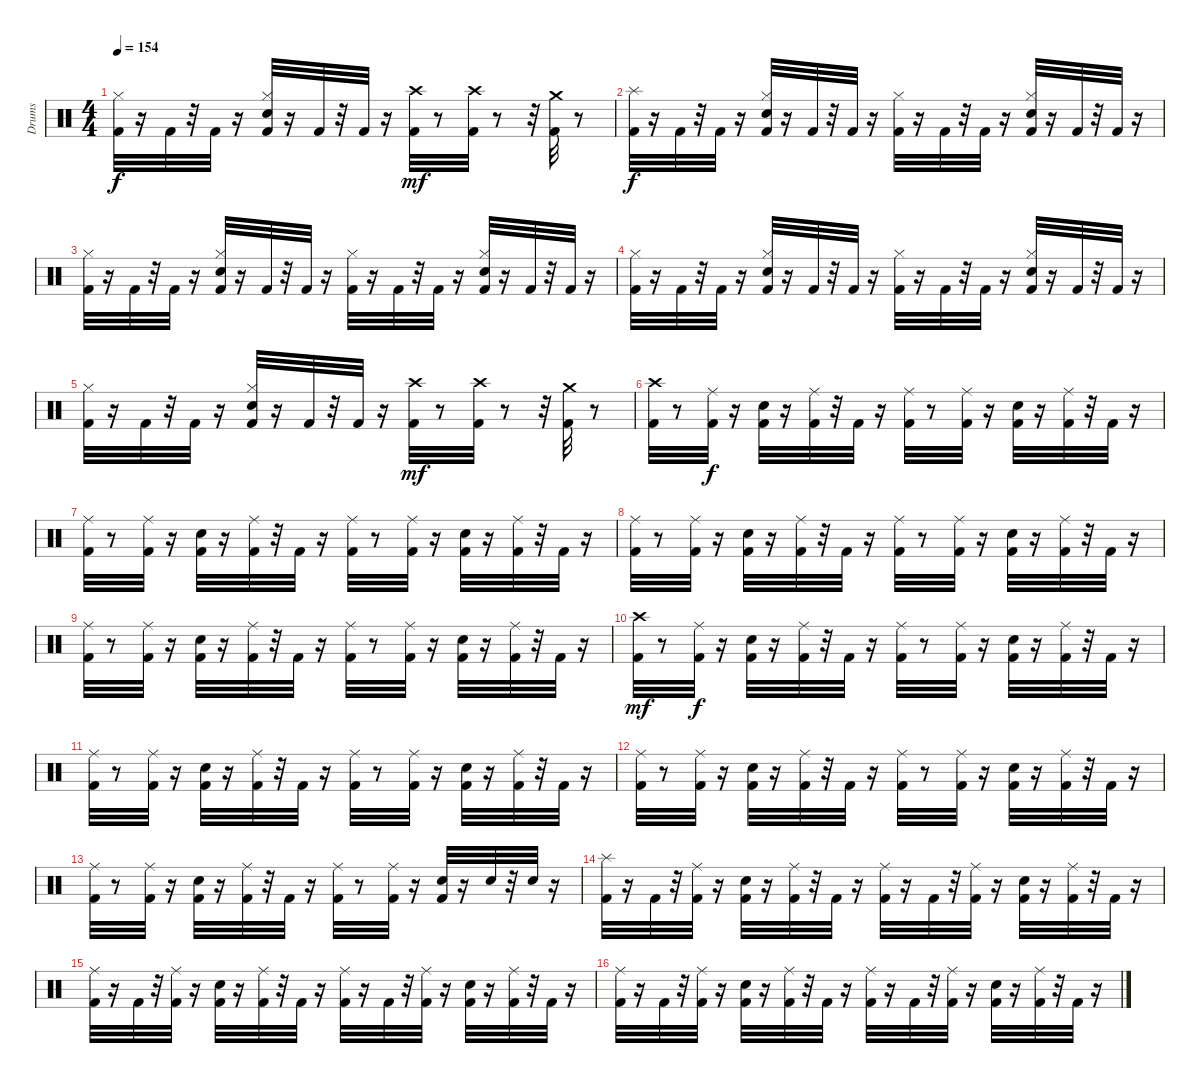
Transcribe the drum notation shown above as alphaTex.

\track ("Drums" "Drums") {instrument percussion}
\staff {score}
\articulation defaults
\ts (4 4)
\tempo 154
\clef neutral
\ks c
("Kick (hit) 2" "Hi-Hat (closed)").32{dy f} r.16 "Kick (hit) 2".32 r.32 "Kick (hit) 2".32 r.16 ("Kick (hit) 2" "Snare (hit) 2" "Hi-Hat (closed)").32 r.16 "Kick (hit) 2".32 r.32 "Kick (hit) 2".32 r.16 ("Kick (hit) 2" "Crash high (hit)").32{dy mf} r.8 ("Kick (hit) 2" "Crash high (hit)").32 r.8 r.32 ("Kick (hit) 2" "Crash medium (hit)").32 r.8 |
("Kick (hit) 2" "Splash (hit)").32{dy f} r.16 "Kick (hit) 2".32 r.32 "Kick (hit) 2".32 r.16 ("Kick (hit) 2" "Snare (hit) 2" "Hi-Hat (closed)").32 r.16 "Kick (hit) 2".32 r.32 "Kick (hit) 2".32 r.16 ("Kick (hit) 2" "Hi-Hat (closed)").32 r.16 "Kick (hit) 2".32 r.32 "Kick (hit) 2".32 r.16 ("Kick (hit) 2" "Snare (hit) 2" "Hi-Hat (closed)").32 r.16 "Kick (hit) 2".32 r.32 "Kick (hit) 2".32 r.16 |
("Kick (hit) 2" "Hi-Hat (closed)").32 r.16 "Kick (hit) 2".32 r.32 "Kick (hit) 2".32 r.16 ("Kick (hit) 2" "Snare (hit) 2" "Hi-Hat (closed)").32 r.16 "Kick (hit) 2".32 r.32 "Kick (hit) 2".32 r.16 ("Kick (hit) 2" "Hi-Hat (closed)").32 r.16 "Kick (hit) 2".32 r.32 "Kick (hit) 2".32 r.16 ("Kick (hit) 2" "Snare (hit) 2" "Hi-Hat (closed)").32 r.16 "Kick (hit) 2".32 r.32 "Kick (hit) 2".32 r.16 |
("Kick (hit) 2" "Hi-Hat (closed)").32 r.16 "Kick (hit) 2".32 r.32 "Kick (hit) 2".32 r.16 ("Kick (hit) 2" "Snare (hit) 2" "Hi-Hat (closed)").32 r.16 "Kick (hit) 2".32 r.32 "Kick (hit) 2".32 r.16 ("Kick (hit) 2" "Hi-Hat (closed)").32 r.16 "Kick (hit) 2".32 r.32 "Kick (hit) 2".32 r.16 ("Kick (hit) 2" "Snare (hit) 2" "Hi-Hat (closed)").32 r.16 "Kick (hit) 2".32 r.32 "Kick (hit) 2".32 r.16 |
("Kick (hit) 2" "Hi-Hat (closed)").32 r.16 "Kick (hit) 2".32 r.32 "Kick (hit) 2".32 r.16 ("Kick (hit) 2" "Snare (hit) 2" "Hi-Hat (closed)").32 r.16 "Kick (hit) 2".32 r.32 "Kick (hit) 2".32 r.16 ("Kick (hit) 2" "Crash high (hit)").32{dy mf} r.8 ("Kick (hit) 2" "Crash high (hit)").32 r.8 r.32 ("Kick (hit) 2" "Crash medium (hit)").32 r.8 |
("Kick (hit) 2" "Crash high (hit)").32 r.8 ("Kick (hit) 2" "Ride (middle)").32{dy f} r.16 ("Kick (hit) 2" "Snare (hit) 2").32 r.16 ("Kick (hit) 2" "Ride (middle)").32 r.32 "Kick (hit) 2".32 r.16 ("Kick (hit) 2" "Ride (middle)").32 r.8 ("Kick (hit) 2" "Ride (middle)").32 r.16 ("Kick (hit) 2" "Snare (hit) 2").32 r.16 ("Kick (hit) 2" "Ride (middle)").32 r.32 "Kick (hit) 2".32 r.16 |
("Kick (hit) 2" "Ride (middle)").32 r.8 ("Kick (hit) 2" "Ride (middle)").32 r.16 ("Kick (hit) 2" "Snare (hit) 2").32 r.16 ("Kick (hit) 2" "Ride (middle)").32 r.32 "Kick (hit) 2".32 r.16 ("Kick (hit) 2" "Ride (middle)").32 r.8 ("Kick (hit) 2" "Ride (middle)").32 r.16 ("Kick (hit) 2" "Snare (hit) 2").32 r.16 ("Kick (hit) 2" "Ride (middle)").32 r.32 "Kick (hit) 2".32 r.16 |
("Kick (hit) 2" "Ride (middle)").32 r.8 ("Kick (hit) 2" "Ride (middle)").32 r.16 ("Kick (hit) 2" "Snare (hit) 2").32 r.16 ("Kick (hit) 2" "Ride (middle)").32 r.32 "Kick (hit) 2".32 r.16 ("Kick (hit) 2" "Ride (middle)").32 r.8 ("Kick (hit) 2" "Ride (middle)").32 r.16 ("Kick (hit) 2" "Snare (hit) 2").32 r.16 ("Kick (hit) 2" "Ride (middle)").32 r.32 "Kick (hit) 2".32 r.16 |
("Kick (hit) 2" "Ride (middle)").32 r.8 ("Kick (hit) 2" "Ride (middle)").32 r.16 ("Kick (hit) 2" "Snare (hit) 2").32 r.16 ("Kick (hit) 2" "Ride (middle)").32 r.32 "Kick (hit) 2".32 r.16 ("Kick (hit) 2" "Ride (middle)").32 r.8 ("Kick (hit) 2" "Ride (middle)").32 r.16 ("Kick (hit) 2" "Snare (hit) 2").32 r.16 ("Kick (hit) 2" "Ride (middle)").32 r.32 "Kick (hit) 2".32 r.16 |
("Kick (hit) 2" "Crash high (hit)").32{dy mf} r.8 ("Kick (hit) 2" "Ride (middle)").32{dy f} r.16 ("Kick (hit) 2" "Snare (hit) 2").32 r.16 ("Kick (hit) 2" "Ride (middle)").32 r.32 "Kick (hit) 2".32 r.16 ("Kick (hit) 2" "Ride (middle)").32 r.8 ("Kick (hit) 2" "Ride (middle)").32 r.16 ("Kick (hit) 2" "Snare (hit) 2").32 r.16 ("Kick (hit) 2" "Ride (middle)").32 r.32 "Kick (hit) 2".32 r.16 |
("Kick (hit) 2" "Ride (middle)").32 r.8 ("Kick (hit) 2" "Ride (middle)").32 r.16 ("Kick (hit) 2" "Snare (hit) 2").32 r.16 ("Kick (hit) 2" "Ride (middle)").32 r.32 "Kick (hit) 2".32 r.16 ("Kick (hit) 2" "Ride (middle)").32 r.8 ("Kick (hit) 2" "Ride (middle)").32 r.16 ("Kick (hit) 2" "Snare (hit) 2").32 r.16 ("Kick (hit) 2" "Ride (middle)").32 r.32 "Kick (hit) 2".32 r.16 |
("Kick (hit) 2" "Ride (middle)").32 r.8 ("Kick (hit) 2" "Ride (middle)").32 r.16 ("Kick (hit) 2" "Snare (hit) 2").32 r.16 ("Kick (hit) 2" "Ride (middle)").32 r.32 "Kick (hit) 2".32 r.16 ("Kick (hit) 2" "Ride (middle)").32 r.8 ("Kick (hit) 2" "Ride (middle)").32 r.16 ("Kick (hit) 2" "Snare (hit) 2").32 r.16 ("Kick (hit) 2" "Ride (middle)").32 r.32 "Kick (hit) 2".32 r.16 |
("Kick (hit) 2" "Ride (middle)").32 r.8 ("Kick (hit) 2" "Ride (middle)").32 r.16 ("Kick (hit) 2" "Snare (hit) 2").32 r.16 ("Kick (hit) 2" "Ride (middle)").32 r.32 "Kick (hit) 2".32 r.16 ("Kick (hit) 2" "Ride (middle)").32 r.8 ("Kick (hit) 2" "Ride (middle)").32 r.16 ("Kick (hit) 2" "Snare (hit) 2").32 r.16 "Snare (hit) 2".32 r.32 "Snare (hit) 2".32 r.16 |
("Kick (hit) 2" "Splash (hit)").32 r.16 "Kick (hit) 2".32 r.32 ("Kick (hit) 2" "Ride (middle)").32 r.16 ("Kick (hit) 2" "Snare (hit) 2").32 r.16 ("Kick (hit) 2" "Ride (middle)").32 r.32 "Kick (hit) 2".32 r.16 ("Kick (hit) 2" "Ride (middle)").32 r.16 "Kick (hit) 2".32 r.32 ("Kick (hit) 2" "Ride (middle)").32 r.16 ("Kick (hit) 2" "Snare (hit) 2").32 r.16 ("Kick (hit) 2" "Ride (middle)").32 r.32 "Kick (hit) 2".32 r.16 |
("Kick (hit) 2" "Ride (middle)").32 r.16 "Kick (hit) 2".32 r.32 ("Kick (hit) 2" "Ride (middle)").32 r.16 ("Kick (hit) 2" "Snare (hit) 2").32 r.16 ("Kick (hit) 2" "Ride (middle)").32 r.32 "Kick (hit) 2".32 r.16 ("Kick (hit) 2" "Ride (middle)").32 r.16 "Kick (hit) 2".32 r.32 ("Kick (hit) 2" "Ride (middle)").32 r.16 ("Kick (hit) 2" "Snare (hit) 2").32 r.16 ("Kick (hit) 2" "Ride (middle)").32 r.32 "Kick (hit) 2".32 r.16 |
("Kick (hit) 2" "Ride (middle)").32 r.16 "Kick (hit) 2".32 r.32 ("Kick (hit) 2" "Ride (middle)").32 r.16 ("Kick (hit) 2" "Snare (hit) 2").32 r.16 ("Kick (hit) 2" "Ride (middle)").32 r.32 "Kick (hit) 2".32 r.16 ("Kick (hit) 2" "Ride (middle)").32 r.16 "Kick (hit) 2".32 r.32 ("Kick (hit) 2" "Ride (middle)").32 r.16 ("Kick (hit) 2" "Snare (hit) 2").32 r.16 ("Kick (hit) 2" "Ride (middle)").32 r.32 "Kick (hit) 2".32 r.16
